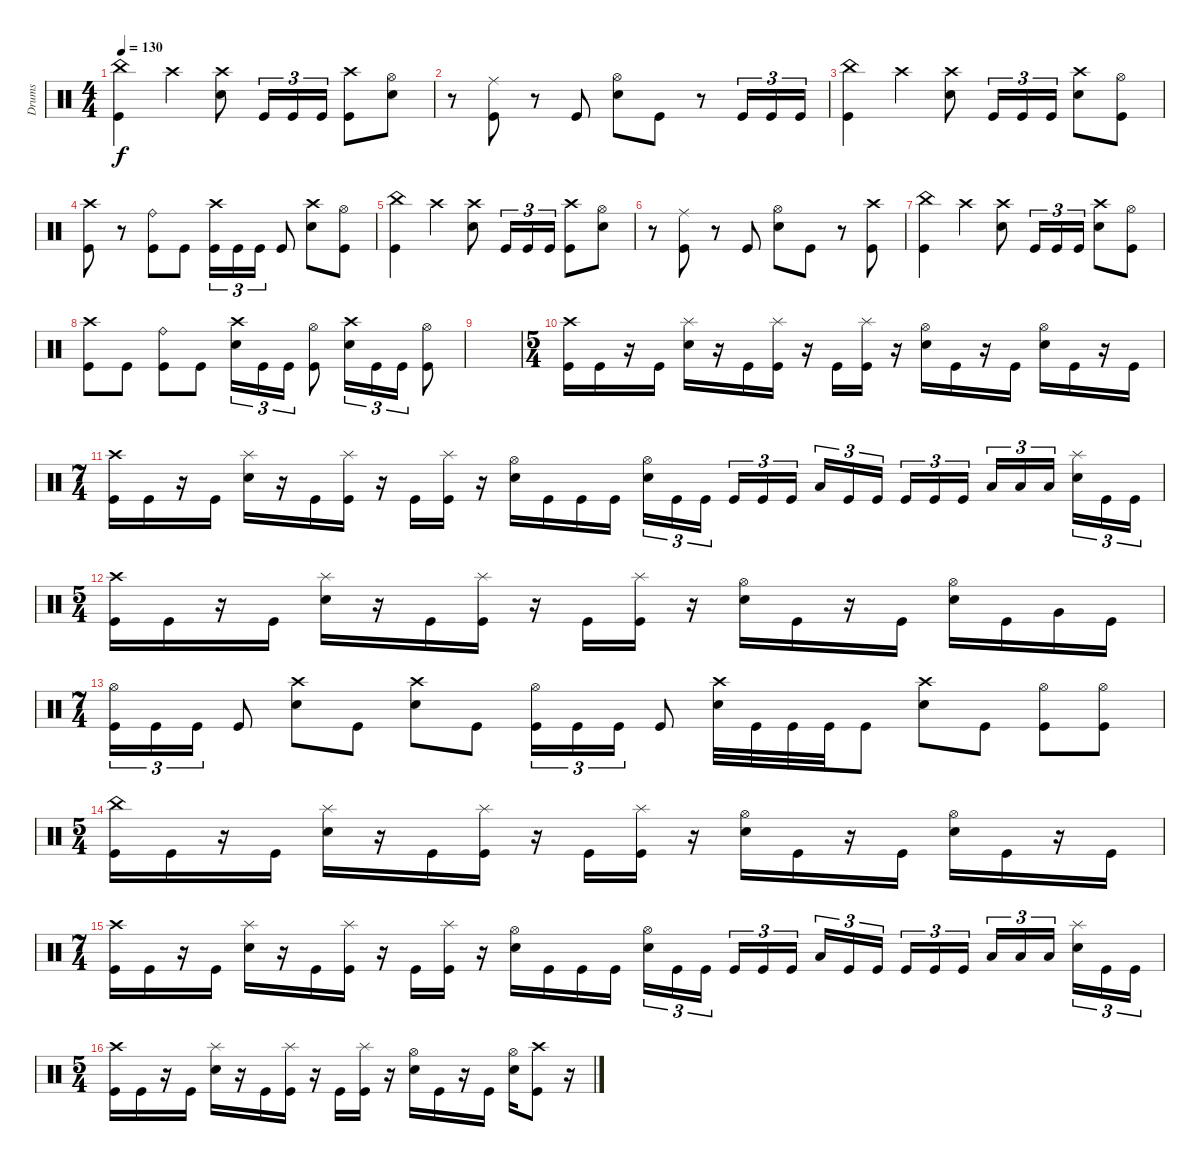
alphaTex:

\track ("Drums" "Drums") {instrument percussion}
\staff {score}
\articulation defaults
\ts (4 4)
\tempo 130
\clef neutral
\ks c
("China (hit)" "Kick (hit)").4{dy f} "Crash high (hit)".4 ("Crash high (hit)" "Snare (hit) 2").8 "Kick (hit)".16{tu (3 2)} "Kick (hit)".16{tu (3 2)} "Kick (hit)".16{tu (3 2)} ("Crash high (hit)" "Kick (hit)").8 ("Hi-Hat (open)" "Snare (hit) 2").8 |
r.8 ("Ride (middle)" "Kick (hit)").8 r.8 "Kick (hit)".8 ("Hi-Hat (open)" "Snare (hit) 2").8 "Kick (hit)".8 r.8 "Kick (hit)".16{tu (3 2)} "Kick (hit)".16{tu (3 2)} "Kick (hit)".16{tu (3 2)} |
("China (hit)" "Kick (hit)").4 "Crash high (hit)".4 ("Crash high (hit)" "Snare (hit) 2").8 "Kick (hit)".16{tu (3 2)} "Kick (hit)".16{tu (3 2)} "Kick (hit)".16{tu (3 2)} ("Crash high (hit)" "Snare (hit) 2").8 ("Hi-Hat (open)" "Kick (hit)").8 |
("Crash high (hit)" "Kick (hit)").8 r.8 ("Ride (bell)" "Kick (hit)").8 "Kick (hit)".8 ("Crash high (hit)" "Kick (hit)").16{tu (3 2)} "Kick (hit)".16{tu (3 2)} "Kick (hit)".16{tu (3 2)} "Kick (hit)".8 ("Crash high (hit)" "Snare (hit) 2").8 ("Hi-Hat (open)" "Kick (hit)").8 |
("China (hit)" "Kick (hit)").4 "Crash high (hit)".4 ("Crash high (hit)" "Snare (hit) 2").8 "Kick (hit)".16{tu (3 2)} "Kick (hit)".16{tu (3 2)} "Kick (hit)".16{tu (3 2)} ("Crash high (hit)" "Kick (hit)").8 ("Hi-Hat (open)" "Snare (hit) 2").8 |
r.8 ("Ride (middle)" "Kick (hit)").8 r.8 "Kick (hit)".8 ("Hi-Hat (open)" "Snare (hit) 2").8 "Kick (hit)".8 r.8 ("Crash high (hit)" "Kick (hit)").8 |
("China (hit)" "Kick (hit)").4 "Crash high (hit)".4 ("Crash high (hit)" "Snare (hit) 2").8 "Kick (hit)".16{tu (3 2)} "Kick (hit)".16{tu (3 2)} "Kick (hit)".16{tu (3 2)} ("Crash high (hit)" "Snare (hit) 2").8 ("Hi-Hat (open)" "Kick (hit)").8 |
("Crash high (hit)" "Kick (hit)").8 "Kick (hit)".8 ("Ride (bell)" "Kick (hit)").8 "Kick (hit)".8 ("Crash high (hit)" "Snare (hit) 2").16{tu (3 2)} "Kick (hit)".16{tu (3 2)} "Kick (hit)".16{tu (3 2)} ("Hi-Hat (open)" "Kick (hit)").8 ("Crash high (hit)" "Snare (hit) 2").16{tu (3 2)} "Kick (hit)".16{tu (3 2)} "Kick (hit)".16{tu (3 2)} ("Hi-Hat (open)" "Kick (hit)").8 |
|
\ts (5 4)
("Crash high (hit)" "Kick (hit)").16 "Kick (hit)".16 r.16 "Kick (hit)".16 ("Splash (hit)" "Snare (hit) 2").16 r.16 "Kick (hit)".16 ("Splash (hit)" "Kick (hit)").16 r.16 "Kick (hit)".16 ("Splash (hit)" "Kick (hit)").16 r.16 ("Hi-Hat (open)" "Snare (hit) 2").16 "Kick (hit)".16 r.16 "Kick (hit)".16 ("Hi-Hat (open)" "Snare (hit) 2").16 "Kick (hit)".16 r.16 "Kick (hit)".16 |
\ts (7 4)
("Crash high (hit)" "Kick (hit)").16 "Kick (hit)".16 r.16 "Kick (hit)".16 ("Splash (hit)" "Snare (hit) 2").16 r.16 "Kick (hit)".16 ("Splash (hit)" "Kick (hit)").16 r.16 "Kick (hit)".16 ("Splash (hit)" "Kick (hit)").16 r.16 ("Hi-Hat (open)" "Snare (hit) 2").16 "Kick (hit)".16 "Kick (hit)".16 "Kick (hit)".16 ("Hi-Hat (open)" "Snare (hit) 2").16{tu (3 2)} "Kick (hit)".16{tu (3 2)} "Kick (hit)".16{tu (3 2) beam splitsecondary} "Kick (hit)".16{tu (3 2)} "Kick (hit)".16{tu (3 2)} "Kick (hit)".16{tu (3 2)} "Low Tom (hit)".16{tu (3 2)} "Kick (hit)".16{tu (3 2)} "Kick (hit)".16{tu (3 2) beam splitsecondary} "Kick (hit)".16{tu (3 2)} "Kick (hit)".16{tu (3 2)} "Kick (hit)".16{tu (3 2)} "Low Tom (hit)".16{tu (3 2)} "Low Tom (hit)".16{tu (3 2)} "Low Tom (hit)".16{tu (3 2) beam splitsecondary} ("Splash (hit)" "Snare (hit) 2").16{tu (3 2)} "Kick (hit)".16{tu (3 2)} "Kick (hit)".16{tu (3 2)} |
\ts (5 4)
("Crash high (hit)" "Kick (hit)").16 "Kick (hit)".16 r.16 "Kick (hit)".16 ("Splash (hit)" "Snare (hit) 2").16 r.16 "Kick (hit)".16 ("Splash (hit)" "Kick (hit)").16 r.16 "Kick (hit)".16 ("Splash (hit)" "Kick (hit)").16 r.16 ("Hi-Hat (open)" "Snare (hit) 2").16 "Kick (hit)".16 r.16 "Kick (hit)".16 ("Hi-Hat (open)" "Snare (hit) 2").16 "Kick (hit)".16 "Very Low Tom (hit)".16 "Kick (hit)".16 |
\ts (7 4)
("Hi-Hat (open)" "Kick (hit)").16{tu (3 2)} "Kick (hit)".16{tu (3 2)} "Kick (hit)".16{tu (3 2)} "Kick (hit)".8 ("Crash high (hit)" "Snare (hit) 2").8 "Kick (hit)".8 ("Crash high (hit)" "Snare (hit) 2").8 "Kick (hit)".8 ("Hi-Hat (open)" "Kick (hit)").16{tu (3 2)} "Kick (hit)".16{tu (3 2)} "Kick (hit)".16{tu (3 2)} "Kick (hit)".8 ("Crash high (hit)" "Snare (hit) 2").32 "Kick (hit)".32 "Kick (hit)".32 "Kick (hit)".32 "Kick (hit)".8 ("Crash high (hit)" "Snare (hit) 2").8 "Kick (hit)".8 ("Hi-Hat (open)" "Kick (hit)").8 ("Hi-Hat (open)" "Kick (hit)").8 |
\ts (5 4)
("China (hit)" "Kick (hit)").16 "Kick (hit)".16 r.16 "Kick (hit)".16 ("Splash (hit)" "Snare (hit) 2").16 r.16 "Kick (hit)".16 ("Splash (hit)" "Kick (hit)").16 r.16 "Kick (hit)".16 ("Splash (hit)" "Kick (hit)").16 r.16 ("Hi-Hat (open)" "Snare (hit) 2").16 "Kick (hit)".16 r.16 "Kick (hit)".16 ("Hi-Hat (open)" "Snare (hit) 2").16 "Kick (hit)".16 r.16 "Kick (hit)".16 |
\ts (7 4)
("Crash high (hit)" "Kick (hit)").16 "Kick (hit)".16 r.16 "Kick (hit)".16 ("Splash (hit)" "Snare (hit) 2").16 r.16 "Kick (hit)".16 ("Splash (hit)" "Kick (hit)").16 r.16 "Kick (hit)".16 ("Splash (hit)" "Kick (hit)").16 r.16 ("Hi-Hat (open)" "Snare (hit) 2").16 "Kick (hit)".16 "Kick (hit)".16 "Kick (hit)".16 ("Hi-Hat (open)" "Snare (hit) 2").16{tu (3 2)} "Kick (hit)".16{tu (3 2)} "Kick (hit)".16{tu (3 2) beam splitsecondary} "Kick (hit)".16{tu (3 2)} "Kick (hit)".16{tu (3 2)} "Kick (hit)".16{tu (3 2)} "Low Tom (hit)".16{tu (3 2)} "Kick (hit)".16{tu (3 2)} "Kick (hit)".16{tu (3 2) beam splitsecondary} "Kick (hit)".16{tu (3 2)} "Kick (hit)".16{tu (3 2)} "Kick (hit)".16{tu (3 2)} "Low Tom (hit)".16{tu (3 2)} "Low Tom (hit)".16{tu (3 2)} "Low Tom (hit)".16{tu (3 2) beam splitsecondary} ("Splash (hit)" "Snare (hit) 2").16{tu (3 2)} "Kick (hit)".16{tu (3 2)} "Kick (hit)".16{tu (3 2)} |
\ts (5 4)
("Crash high (hit)" "Kick (hit)").16 "Kick (hit)".16 r.16 "Kick (hit)".16 ("Splash (hit)" "Snare (hit) 2").16 r.16 "Kick (hit)".16 ("Splash (hit)" "Kick (hit)").16 r.16 "Kick (hit)".16 ("Splash (hit)" "Kick (hit)").16 r.16 ("Hi-Hat (open)" "Snare (hit) 2").16 "Kick (hit)".16 r.16 "Kick (hit)".16 ("Hi-Hat (open)" "Snare (hit) 2").16 ("Crash high (hit)" "Kick (hit)").8 r.16
